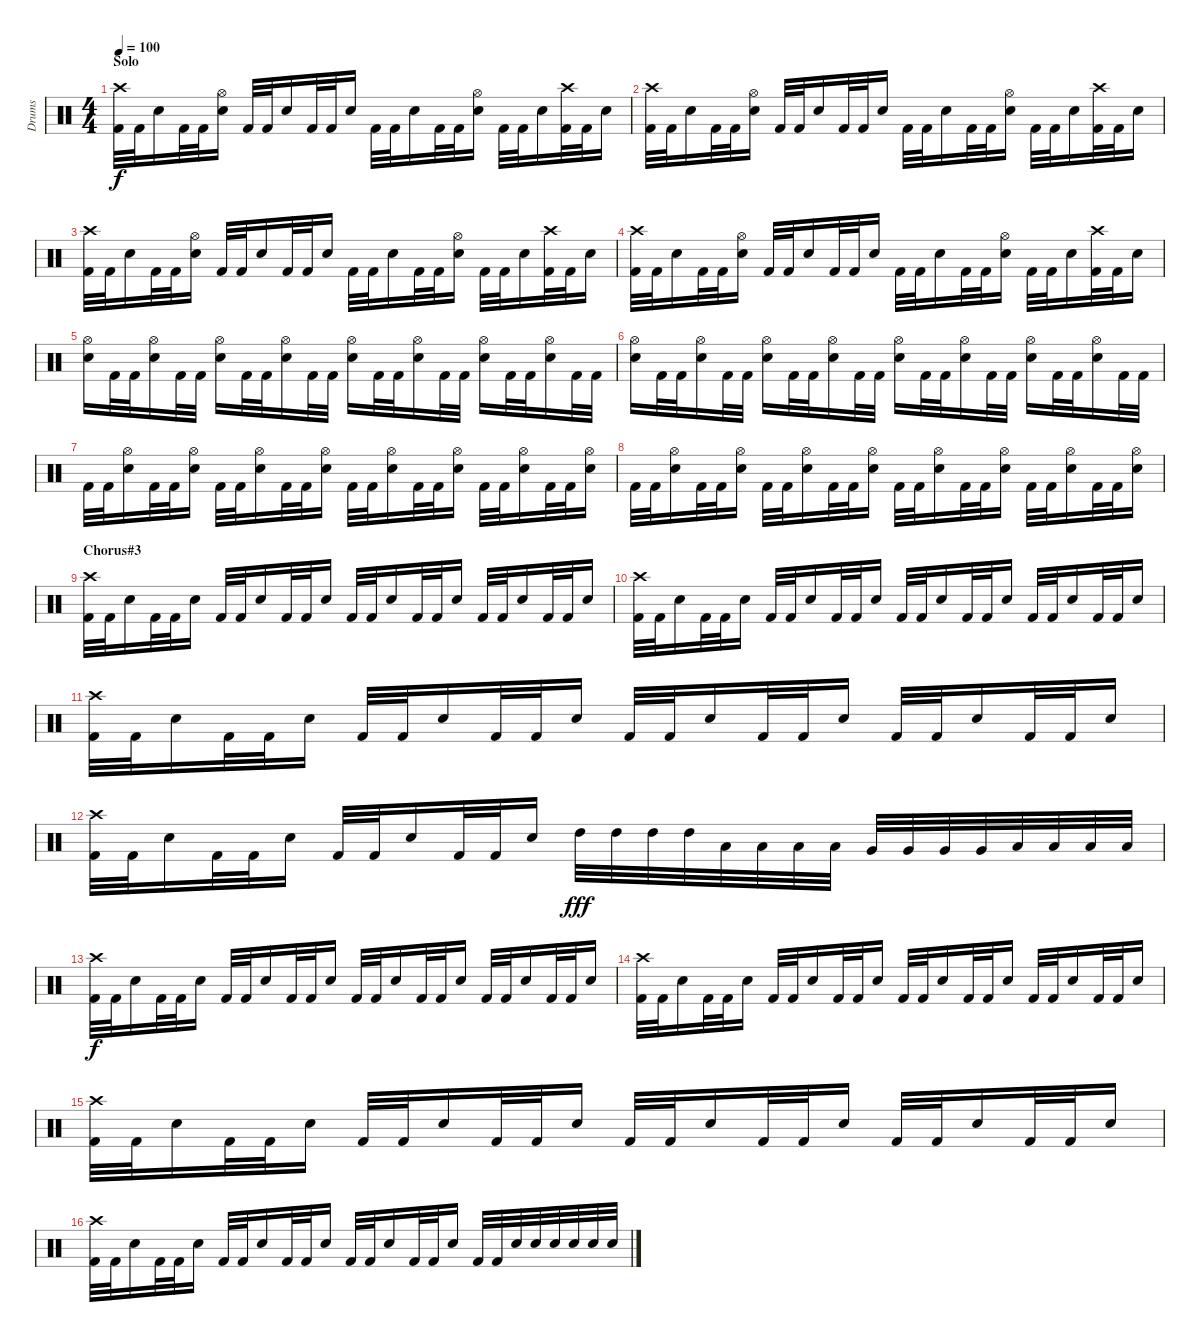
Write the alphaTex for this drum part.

\track ("Drums" "Drums") {instrument percussion}
\staff {score}
\articulation defaults
\ts (4 4)
\section ("" "Solo")
\tempo 100
\clef neutral
\ks c
("Crash high (hit)" "Kick (hit) 2").32{dy f} "Kick (hit) 2".32 "Snare (hit) 2".16 "Kick (hit) 2".32 "Kick (hit) 2".32 ("Hi-Hat (open)" "Snare (hit) 2").16 "Kick (hit) 2".32 "Kick (hit) 2".32 "Snare (hit) 2".16 "Kick (hit) 2".32 "Kick (hit) 2".32 "Snare (hit) 2".16 "Kick (hit) 2".32 "Kick (hit) 2".32 "Snare (hit) 2".16 "Kick (hit) 2".32 "Kick (hit) 2".32 ("Hi-Hat (open)" "Snare (hit) 2").16 "Kick (hit) 2".32 "Kick (hit) 2".32 "Snare (hit) 2".16 ("Crash high (hit)" "Kick (hit) 2").32 "Kick (hit) 2".32 "Snare (hit) 2".16 |
("Crash high (hit)" "Kick (hit) 2").32 "Kick (hit) 2".32 "Snare (hit) 2".16 "Kick (hit) 2".32 "Kick (hit) 2".32 ("Hi-Hat (open)" "Snare (hit) 2").16 "Kick (hit) 2".32 "Kick (hit) 2".32 "Snare (hit) 2".16 "Kick (hit) 2".32 "Kick (hit) 2".32 "Snare (hit) 2".16 "Kick (hit) 2".32 "Kick (hit) 2".32 "Snare (hit) 2".16 "Kick (hit) 2".32 "Kick (hit) 2".32 ("Hi-Hat (open)" "Snare (hit) 2").16 "Kick (hit) 2".32 "Kick (hit) 2".32 "Snare (hit) 2".16 ("Crash high (hit)" "Kick (hit) 2").32 "Kick (hit) 2".32 "Snare (hit) 2".16 |
("Crash high (hit)" "Kick (hit) 2").32 "Kick (hit) 2".32 "Snare (hit) 2".16 "Kick (hit) 2".32 "Kick (hit) 2".32 ("Hi-Hat (open)" "Snare (hit) 2").16 "Kick (hit) 2".32 "Kick (hit) 2".32 "Snare (hit) 2".16 "Kick (hit) 2".32 "Kick (hit) 2".32 "Snare (hit) 2".16 "Kick (hit) 2".32 "Kick (hit) 2".32 "Snare (hit) 2".16 "Kick (hit) 2".32 "Kick (hit) 2".32 ("Hi-Hat (open)" "Snare (hit) 2").16 "Kick (hit) 2".32 "Kick (hit) 2".32 "Snare (hit) 2".16 ("Crash high (hit)" "Kick (hit) 2").32 "Kick (hit) 2".32 "Snare (hit) 2".16 |
("Crash high (hit)" "Kick (hit) 2").32 "Kick (hit) 2".32 "Snare (hit) 2".16 "Kick (hit) 2".32 "Kick (hit) 2".32 ("Hi-Hat (open)" "Snare (hit) 2").16 "Kick (hit) 2".32 "Kick (hit) 2".32 "Snare (hit) 2".16 "Kick (hit) 2".32 "Kick (hit) 2".32 "Snare (hit) 2".16 "Kick (hit) 2".32 "Kick (hit) 2".32 "Snare (hit) 2".16 "Kick (hit) 2".32 "Kick (hit) 2".32 ("Hi-Hat (open)" "Snare (hit) 2").16 "Kick (hit) 2".32 "Kick (hit) 2".32 "Snare (hit) 2".16 ("Crash high (hit)" "Kick (hit) 2").32 "Kick (hit) 2".32 "Snare (hit) 2".16 |
("Hi-Hat (open)" "Snare (hit) 2").16 "Kick (hit) 2".32 "Kick (hit) 2".32 ("Hi-Hat (open)" "Snare (hit) 2").16 "Kick (hit) 2".32 "Kick (hit) 2".32 ("Hi-Hat (open)" "Snare (hit) 2").16 "Kick (hit) 2".32 "Kick (hit) 2".32 ("Hi-Hat (open)" "Snare (hit) 2").16 "Kick (hit) 2".32 "Kick (hit) 2".32 ("Hi-Hat (open)" "Snare (hit) 2").16 "Kick (hit) 2".32 "Kick (hit) 2".32 ("Hi-Hat (open)" "Snare (hit) 2").16 "Kick (hit) 2".32 "Kick (hit) 2".32 ("Hi-Hat (open)" "Snare (hit) 2").16 "Kick (hit) 2".32 "Kick (hit) 2".32 ("Hi-Hat (open)" "Snare (hit) 2").16 "Kick (hit) 2".32 "Kick (hit) 2".32 |
("Hi-Hat (open)" "Snare (hit) 2").16 "Kick (hit) 2".32 "Kick (hit) 2".32 ("Hi-Hat (open)" "Snare (hit) 2").16 "Kick (hit) 2".32 "Kick (hit) 2".32 ("Hi-Hat (open)" "Snare (hit) 2").16 "Kick (hit) 2".32 "Kick (hit) 2".32 ("Hi-Hat (open)" "Snare (hit) 2").16 "Kick (hit) 2".32 "Kick (hit) 2".32 ("Hi-Hat (open)" "Snare (hit) 2").16 "Kick (hit) 2".32 "Kick (hit) 2".32 ("Hi-Hat (open)" "Snare (hit) 2").16 "Kick (hit) 2".32 "Kick (hit) 2".32 ("Hi-Hat (open)" "Snare (hit) 2").16 "Kick (hit) 2".32 "Kick (hit) 2".32 ("Hi-Hat (open)" "Snare (hit) 2").16 "Kick (hit) 2".32 "Kick (hit) 2".32 |
"Kick (hit) 2".32 "Kick (hit) 2".32 ("Hi-Hat (open)" "Snare (hit) 2").16 "Kick (hit) 2".32 "Kick (hit) 2".32 ("Hi-Hat (open)" "Snare (hit) 2").16 "Kick (hit) 2".32 "Kick (hit) 2".32 ("Hi-Hat (open)" "Snare (hit) 2").16 "Kick (hit) 2".32 "Kick (hit) 2".32 ("Hi-Hat (open)" "Snare (hit) 2").16 "Kick (hit) 2".32 "Kick (hit) 2".32 ("Hi-Hat (open)" "Snare (hit) 2").16 "Kick (hit) 2".32 "Kick (hit) 2".32 ("Hi-Hat (open)" "Snare (hit) 2").16 "Kick (hit) 2".32 "Kick (hit) 2".32 ("Hi-Hat (open)" "Snare (hit) 2").16 "Kick (hit) 2".32 "Kick (hit) 2".32 ("Hi-Hat (open)" "Snare (hit) 2").16 |
"Kick (hit) 2".32 "Kick (hit) 2".32 ("Hi-Hat (open)" "Snare (hit) 2").16 "Kick (hit) 2".32 "Kick (hit) 2".32 ("Hi-Hat (open)" "Snare (hit) 2").16 "Kick (hit) 2".32 "Kick (hit) 2".32 ("Hi-Hat (open)" "Snare (hit) 2").16 "Kick (hit) 2".32 "Kick (hit) 2".32 ("Hi-Hat (open)" "Snare (hit) 2").16 "Kick (hit) 2".32 "Kick (hit) 2".32 ("Hi-Hat (open)" "Snare (hit) 2").16 "Kick (hit) 2".32 "Kick (hit) 2".32 ("Hi-Hat (open)" "Snare (hit) 2").16 "Kick (hit) 2".32 "Kick (hit) 2".32 ("Hi-Hat (open)" "Snare (hit) 2").16 "Kick (hit) 2".32 "Kick (hit) 2".32 ("Hi-Hat (open)" "Snare (hit) 2").16 |
\section ("" "Chorus#3")
("Crash high (hit)" "Kick (hit) 2").32 "Kick (hit) 2".32 "Snare (hit) 2".16 "Kick (hit) 2".32 "Kick (hit) 2".32 "Snare (hit) 2".16 "Kick (hit) 2".32 "Kick (hit) 2".32 "Snare (hit) 2".16 "Kick (hit) 2".32 "Kick (hit) 2".32 "Snare (hit) 2".16 "Kick (hit) 2".32 "Kick (hit) 2".32 "Snare (hit) 2".16 "Kick (hit) 2".32 "Kick (hit) 2".32 "Snare (hit) 2".16 "Kick (hit) 2".32 "Kick (hit) 2".32 "Snare (hit) 2".16 "Kick (hit) 2".32 "Kick (hit) 2".32 "Snare (hit) 2".16 |
("Crash high (hit)" "Kick (hit) 2").32 "Kick (hit) 2".32 "Snare (hit) 2".16 "Kick (hit) 2".32 "Kick (hit) 2".32 "Snare (hit) 2".16 "Kick (hit) 2".32 "Kick (hit) 2".32 "Snare (hit) 2".16 "Kick (hit) 2".32 "Kick (hit) 2".32 "Snare (hit) 2".16 "Kick (hit) 2".32 "Kick (hit) 2".32 "Snare (hit) 2".16 "Kick (hit) 2".32 "Kick (hit) 2".32 "Snare (hit) 2".16 "Kick (hit) 2".32 "Kick (hit) 2".32 "Snare (hit) 2".16 "Kick (hit) 2".32 "Kick (hit) 2".32 "Snare (hit) 2".16 |
("Crash high (hit)" "Kick (hit) 2").32 "Kick (hit) 2".32 "Snare (hit) 2".16 "Kick (hit) 2".32 "Kick (hit) 2".32 "Snare (hit) 2".16 "Kick (hit) 2".32 "Kick (hit) 2".32 "Snare (hit) 2".16 "Kick (hit) 2".32 "Kick (hit) 2".32 "Snare (hit) 2".16 "Kick (hit) 2".32 "Kick (hit) 2".32 "Snare (hit) 2".16 "Kick (hit) 2".32 "Kick (hit) 2".32 "Snare (hit) 2".16 "Kick (hit) 2".32 "Kick (hit) 2".32 "Snare (hit) 2".16 "Kick (hit) 2".32 "Kick (hit) 2".32 "Snare (hit) 2".16 |
("Crash high (hit)" "Kick (hit) 2").32 "Kick (hit) 2".32 "Snare (hit) 2".16 "Kick (hit) 2".32 "Kick (hit) 2".32 "Snare (hit) 2".16 "Kick (hit) 2".32 "Kick (hit) 2".32 "Snare (hit) 2".16 "Kick (hit) 2".32 "Kick (hit) 2".32 "Snare (hit) 2".16 "High Tom (hit)".32{dy fff} "High Tom (hit)".32 "High Tom (hit)".32 "High Tom (hit)".32 "Low Tom (hit)".32 "Low Tom (hit)".32 "Low Tom (hit)".32 "Low Tom (hit)".32 "Very Low Tom (hit)".32 "Very Low Tom (hit)".32 "Very Low Tom (hit)".32 "Very Low Tom (hit)".32 "Low Floor Tom (hit)".32 "Low Floor Tom (hit)".32 "Low Floor Tom (hit)".32 "Low Floor Tom (hit)".32 |
("Crash high (hit)" "Kick (hit) 2").32{dy f} "Kick (hit) 2".32 "Snare (hit) 2".16 "Kick (hit) 2".32 "Kick (hit) 2".32 "Snare (hit) 2".16 "Kick (hit) 2".32 "Kick (hit) 2".32 "Snare (hit) 2".16 "Kick (hit) 2".32 "Kick (hit) 2".32 "Snare (hit) 2".16 "Kick (hit) 2".32 "Kick (hit) 2".32 "Snare (hit) 2".16 "Kick (hit) 2".32 "Kick (hit) 2".32 "Snare (hit) 2".16 "Kick (hit) 2".32 "Kick (hit) 2".32 "Snare (hit) 2".16 "Kick (hit) 2".32 "Kick (hit) 2".32 "Snare (hit) 2".16 |
("Crash high (hit)" "Kick (hit) 2").32 "Kick (hit) 2".32 "Snare (hit) 2".16 "Kick (hit) 2".32 "Kick (hit) 2".32 "Snare (hit) 2".16 "Kick (hit) 2".32 "Kick (hit) 2".32 "Snare (hit) 2".16 "Kick (hit) 2".32 "Kick (hit) 2".32 "Snare (hit) 2".16 "Kick (hit) 2".32 "Kick (hit) 2".32 "Snare (hit) 2".16 "Kick (hit) 2".32 "Kick (hit) 2".32 "Snare (hit) 2".16 "Kick (hit) 2".32 "Kick (hit) 2".32 "Snare (hit) 2".16 "Kick (hit) 2".32 "Kick (hit) 2".32 "Snare (hit) 2".16 |
("Crash high (hit)" "Kick (hit) 2").32 "Kick (hit) 2".32 "Snare (hit) 2".16 "Kick (hit) 2".32 "Kick (hit) 2".32 "Snare (hit) 2".16 "Kick (hit) 2".32 "Kick (hit) 2".32 "Snare (hit) 2".16 "Kick (hit) 2".32 "Kick (hit) 2".32 "Snare (hit) 2".16 "Kick (hit) 2".32 "Kick (hit) 2".32 "Snare (hit) 2".16 "Kick (hit) 2".32 "Kick (hit) 2".32 "Snare (hit) 2".16 "Kick (hit) 2".32 "Kick (hit) 2".32 "Snare (hit) 2".16 "Kick (hit) 2".32 "Kick (hit) 2".32 "Snare (hit) 2".16 |
("Crash high (hit)" "Kick (hit) 2").32 "Kick (hit) 2".32 "Snare (hit) 2".16 "Kick (hit) 2".32 "Kick (hit) 2".32 "Snare (hit) 2".16 "Kick (hit) 2".32 "Kick (hit) 2".32 "Snare (hit) 2".16 "Kick (hit) 2".32 "Kick (hit) 2".32 "Snare (hit) 2".16 "Kick (hit) 2".32 "Kick (hit) 2".32 "Snare (hit) 2".16 "Kick (hit) 2".32 "Kick (hit) 2".32 "Snare (hit) 2".16 "Kick (hit) 2".32 "Kick (hit) 2".32 "Snare (hit) 2".32 "Snare (hit) 2".32 "Snare (hit) 2".32 "Snare (hit) 2".32 "Snare (hit) 2".32 "Snare (hit) 2".32
